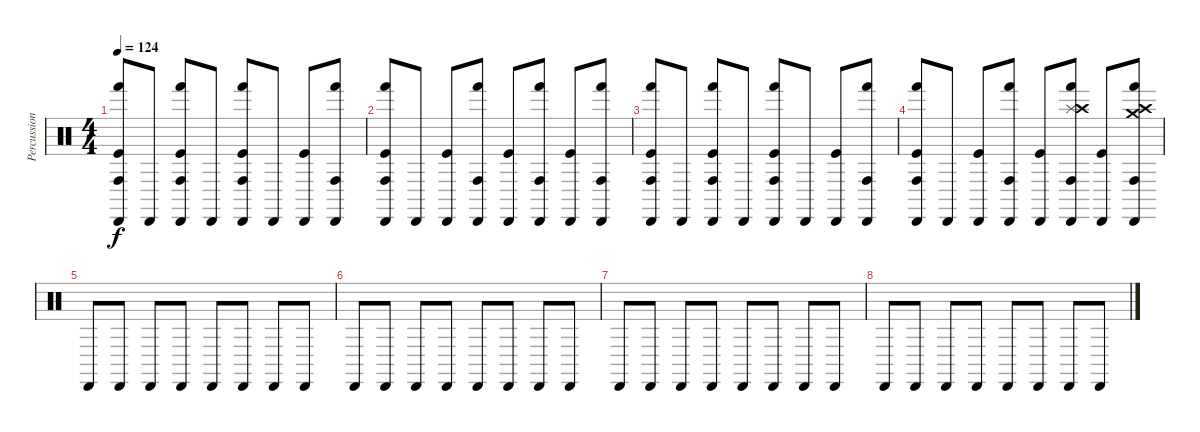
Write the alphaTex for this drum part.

\track ("Percussion" "Percussion") {instrument percussion}
\staff {score}
\articulation defaults
\ts (4 4)
\tempo 124
\clef neutral
\ks c
("Cabasa (hit)" "Kick (hit)" "Hand (hit)" "Conga high (hit)").8{dy f} "Cabasa (hit)".8 ("Cabasa (hit)" "Kick (hit)" "Hand (hit)" "Conga high (hit)").8 "Cabasa (hit)".8 ("Cabasa (hit)" "Kick (hit)" "Hand (hit)" "Conga high (hit)").8 "Cabasa (hit)".8 ("Cabasa (hit)" "Kick (hit)").8 ("Cabasa (hit)" "Hand (hit)" "Conga high (hit)").8 |
("Cabasa (hit)" "Kick (hit)" "Hand (hit)" "Conga high (hit)").8 "Cabasa (hit)".8 ("Cabasa (hit)" "Kick (hit)").8 ("Cabasa (hit)" "Hand (hit)" "Conga high (hit)").8 ("Cabasa (hit)" "Kick (hit)").8 ("Cabasa (hit)" "Hand (hit)" "Conga high (hit)").8 ("Cabasa (hit)" "Kick (hit)").8 ("Cabasa (hit)" "Hand (hit)" "Conga high (hit)").8 |
("Cabasa (hit)" "Kick (hit)" "Hand (hit)" "Conga high (hit)").8 "Cabasa (hit)".8 ("Cabasa (hit)" "Kick (hit)" "Hand (hit)" "Conga high (hit)").8 "Cabasa (hit)".8 ("Cabasa (hit)" "Kick (hit)" "Hand (hit)" "Conga high (hit)").8 "Cabasa (hit)".8 ("Cabasa (hit)" "Kick (hit)").8 ("Cabasa (hit)" "Hand (hit)" "Conga high (hit)").8 |
("Cabasa (hit)" "Kick (hit)" "Hand (hit)" "Conga high (hit)").8 "Cabasa (hit)".8 ("Cabasa (hit)" "Kick (hit)").8 ("Cabasa (hit)" "Hand (hit)" "Conga high (hit)").8 ("Cabasa (hit)" "Kick (hit)").8 ("Cabasa (hit)" "Hand (hit)" "Conga high (hit)" "Splash (hit)" "Crash high (hit)").8 ("Cabasa (hit)" "Kick (hit)").8 ("Cabasa (hit)" "Hand (hit)" "Conga high (hit)" "Crash medium (hit)" "Crash high (hit)").8 |
"Cabasa (hit)".8 "Cabasa (hit)".8 "Cabasa (hit)".8 "Cabasa (hit)".8 "Cabasa (hit)".8 "Cabasa (hit)".8 "Cabasa (hit)".8 "Cabasa (hit)".8 |
"Cabasa (hit)".8 "Cabasa (hit)".8 "Cabasa (hit)".8 "Cabasa (hit)".8 "Cabasa (hit)".8 "Cabasa (hit)".8 "Cabasa (hit)".8 "Cabasa (hit)".8 |
"Cabasa (hit)".8 "Cabasa (hit)".8 "Cabasa (hit)".8 "Cabasa (hit)".8 "Cabasa (hit)".8 "Cabasa (hit)".8 "Cabasa (hit)".8 "Cabasa (hit)".8 |
"Cabasa (hit)".8 "Cabasa (hit)".8 "Cabasa (hit)".8 "Cabasa (hit)".8 "Cabasa (hit)".8 "Cabasa (hit)".8 "Cabasa (hit)".8 "Cabasa (hit)".8
